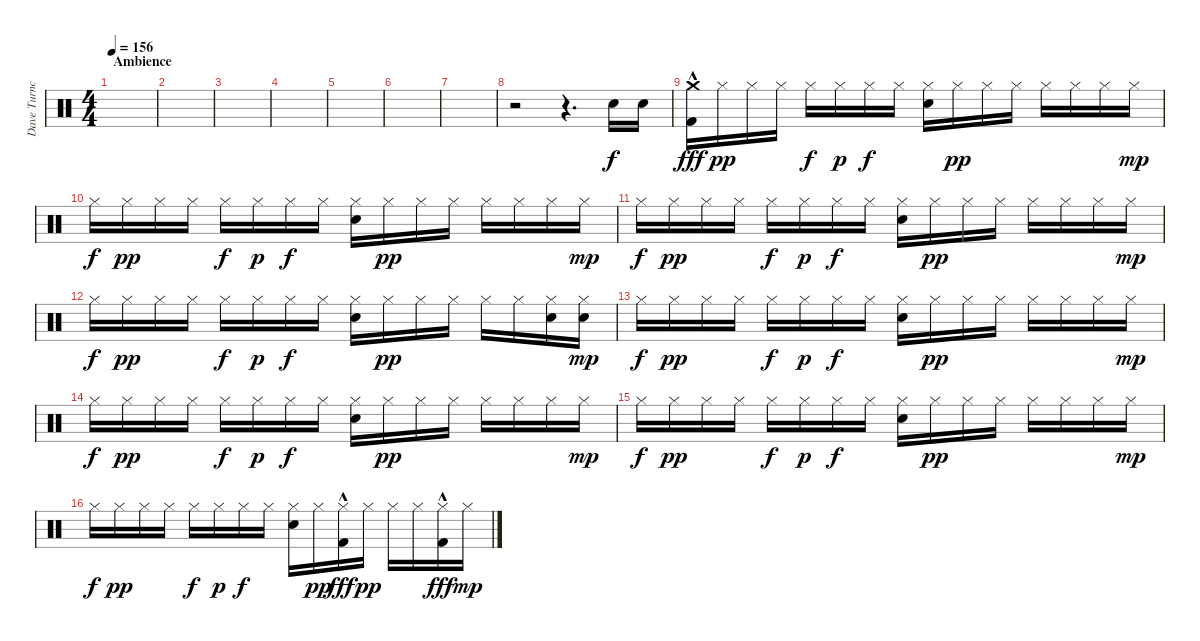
\track ("Dave Turncrantz" "Dave Turnc") {instrument percussion}
\staff {score}
\articulation defaults
\ts (4 4)
\section ("" "Ambience")
\tempo 156
\clef neutral
\ks c
|
|
|
|
|
|
|
r.2 r.4{d} "Electric Snare (hit)".16 "Electric Snare (hit)".16 |
("Crash medium (hit)" "Kick (hit) 2"{hac}).16{dy fff} "Hi-Hat (closed)".16{dy pp} "Hi-Hat (closed)".16 "Hi-Hat (closed)".16 "Hi-Hat (closed)".16{dy f} "Hi-Hat (closed)".16{dy p} "Hi-Hat (closed)".16{dy f} "Hi-Hat (closed)".16 ("Hi-Hat (closed)" "Electric Snare (hit)").16 "Hi-Hat (closed)".16{dy pp} "Hi-Hat (closed)".16 "Hi-Hat (closed)".16 "Hi-Hat (closed)".16 "Hi-Hat (closed)".16 "Hi-Hat (closed)".16 "Hi-Hat (closed)".16{dy mp} |
"Hi-Hat (closed)".16{dy f} "Hi-Hat (closed)".16{dy pp} "Hi-Hat (closed)".16 "Hi-Hat (closed)".16 "Hi-Hat (closed)".16{dy f} "Hi-Hat (closed)".16{dy p} "Hi-Hat (closed)".16{dy f} "Hi-Hat (closed)".16 ("Hi-Hat (closed)" "Electric Snare (hit)").16 "Hi-Hat (closed)".16{dy pp} "Hi-Hat (closed)".16 "Hi-Hat (closed)".16 "Hi-Hat (closed)".16 "Hi-Hat (closed)".16 "Hi-Hat (closed)".16 "Hi-Hat (closed)".16{dy mp} |
"Hi-Hat (closed)".16{dy f} "Hi-Hat (closed)".16{dy pp} "Hi-Hat (closed)".16 "Hi-Hat (closed)".16 "Hi-Hat (closed)".16{dy f} "Hi-Hat (closed)".16{dy p} "Hi-Hat (closed)".16{dy f} "Hi-Hat (closed)".16 ("Hi-Hat (closed)" "Electric Snare (hit)").16 "Hi-Hat (closed)".16{dy pp} "Hi-Hat (closed)".16 "Hi-Hat (closed)".16 "Hi-Hat (closed)".16 "Hi-Hat (closed)".16 "Hi-Hat (closed)".16 "Hi-Hat (closed)".16{dy mp} |
"Hi-Hat (closed)".16{dy f} "Hi-Hat (closed)".16{dy pp} "Hi-Hat (closed)".16 "Hi-Hat (closed)".16 "Hi-Hat (closed)".16{dy f} "Hi-Hat (closed)".16{dy p} "Hi-Hat (closed)".16{dy f} "Hi-Hat (closed)".16 ("Hi-Hat (closed)" "Electric Snare (hit)").16 "Hi-Hat (closed)".16{dy pp} "Hi-Hat (closed)".16 "Hi-Hat (closed)".16 "Hi-Hat (closed)".16 "Hi-Hat (closed)".16 ("Hi-Hat (closed)" "Electric Snare (hit)").16 ("Hi-Hat (closed)" "Electric Snare (hit)").16{dy mp} |
"Hi-Hat (closed)".16{dy f} "Hi-Hat (closed)".16{dy pp} "Hi-Hat (closed)".16 "Hi-Hat (closed)".16 "Hi-Hat (closed)".16{dy f} "Hi-Hat (closed)".16{dy p} "Hi-Hat (closed)".16{dy f} "Hi-Hat (closed)".16 ("Hi-Hat (closed)" "Electric Snare (hit)").16 "Hi-Hat (closed)".16{dy pp} "Hi-Hat (closed)".16 "Hi-Hat (closed)".16 "Hi-Hat (closed)".16 "Hi-Hat (closed)".16 "Hi-Hat (closed)".16 "Hi-Hat (closed)".16{dy mp} |
"Hi-Hat (closed)".16{dy f} "Hi-Hat (closed)".16{dy pp} "Hi-Hat (closed)".16 "Hi-Hat (closed)".16 "Hi-Hat (closed)".16{dy f} "Hi-Hat (closed)".16{dy p} "Hi-Hat (closed)".16{dy f} "Hi-Hat (closed)".16 ("Hi-Hat (closed)" "Electric Snare (hit)").16 "Hi-Hat (closed)".16{dy pp} "Hi-Hat (closed)".16 "Hi-Hat (closed)".16 "Hi-Hat (closed)".16 "Hi-Hat (closed)".16 "Hi-Hat (closed)".16 "Hi-Hat (closed)".16{dy mp} |
"Hi-Hat (closed)".16{dy f} "Hi-Hat (closed)".16{dy pp} "Hi-Hat (closed)".16 "Hi-Hat (closed)".16 "Hi-Hat (closed)".16{dy f} "Hi-Hat (closed)".16{dy p} "Hi-Hat (closed)".16{dy f} "Hi-Hat (closed)".16 ("Hi-Hat (closed)" "Electric Snare (hit)").16 "Hi-Hat (closed)".16{dy pp} "Hi-Hat (closed)".16 "Hi-Hat (closed)".16 "Hi-Hat (closed)".16 "Hi-Hat (closed)".16 "Hi-Hat (closed)".16 "Hi-Hat (closed)".16{dy mp} |
"Hi-Hat (closed)".16{dy f} "Hi-Hat (closed)".16{dy pp} "Hi-Hat (closed)".16 "Hi-Hat (closed)".16 "Hi-Hat (closed)".16{dy f} "Hi-Hat (closed)".16{dy p} "Hi-Hat (closed)".16{dy f} "Hi-Hat (closed)".16 ("Hi-Hat (closed)" "Electric Snare (hit)").16 "Hi-Hat (closed)".16{dy pp} ("Hi-Hat (closed)" "Kick (hit) 2"{hac}).16{dy fff} "Hi-Hat (closed)".16{dy pp} "Hi-Hat (closed)".16 "Hi-Hat (closed)".16 ("Hi-Hat (closed)" "Kick (hit) 2"{hac}).16{dy fff} "Hi-Hat (closed)".16{dy mp}
